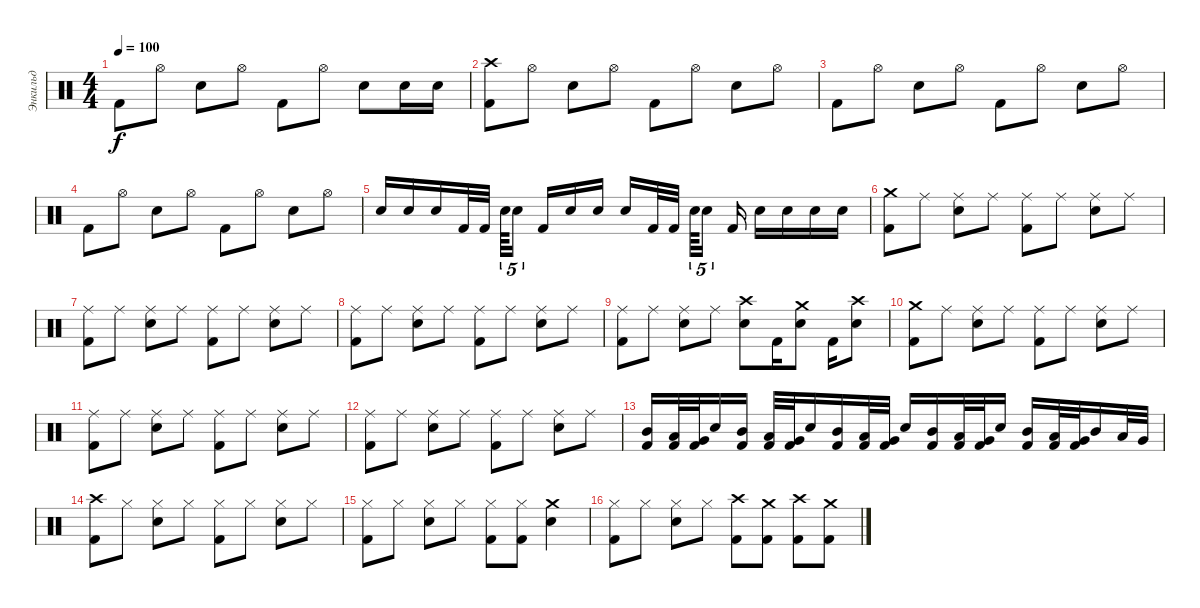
\track ("Энкильд" "Энкильд") {instrument percussion}
\staff {score}
\articulation defaults
\ts (4 4)
\tempo 100
\clef neutral
\ks c "Kick (hit) 2".8{dy f} "Hi-Hat (open)".8 "Snare (hit) 2".8 "Hi-Hat (open)".8 "Kick (hit) 2".8 "Hi-Hat (open)".8 "Snare (hit) 2".8 "Snare (hit) 2".16 "Snare (hit) 2".16
|
("Crash high (hit)" "Kick (hit) 2").8 "Hi-Hat (open)".8 "Snare (hit) 2".8 "Hi-Hat (open)".8 "Kick (hit) 2".8 "Hi-Hat (open)".8 "Snare (hit) 2".8 "Hi-Hat (open)".8 |
"Kick (hit) 2".8 "Hi-Hat (open)".8 "Snare (hit) 2".8 "Hi-Hat (open)".8 "Kick (hit) 2".8 "Hi-Hat (open)".8 "Snare (hit) 2".8 "Hi-Hat (open)".8 |
"Kick (hit) 2".8 "Hi-Hat (open)".8 "Snare (hit) 2".8 "Hi-Hat (open)".8 "Kick (hit) 2".8 "Hi-Hat (open)".8 "Snare (hit) 2".8 "Hi-Hat (open)".8 |
"Snare (hit) 2".16 "Snare (hit) 2".16 "Snare (hit) 2".16 "Kick (hit) 2".32 "Kick (hit) 2".32 "Snare (hit) 2".64{tu (5 4)} "Snare (hit) 2".16{tu (5 4) beam splitsecondary} "Kick (hit) 2".16 "Snare (hit) 2".16 "Snare (hit) 2".16 "Snare (hit) 2".16 "Kick (hit) 2".32 "Kick (hit) 2".32{beam splitsecondary} "Snare (hit) 2".64{tu (5 4)} "Snare (hit) 2".16{tu (5 4) beam splitsecondary} "Kick (hit) 2".16 "Snare (hit) 2".16 "Snare (hit) 2".16 "Snare (hit) 2".16 "Snare (hit) 2".16 |
("Crash medium (hit)" "Kick (hit) 2").8 "Ride (middle)".8 ("Ride (middle)" "Snare (hit) 2").8 "Ride (middle)".8 ("Ride (middle)" "Kick (hit) 2").8 "Ride (middle)".8 ("Ride (middle)" "Snare (hit) 2").8 "Ride (middle)".8 |
("Kick (hit) 2" "Ride (middle)").8 "Ride (middle)".8 ("Snare (hit) 2" "Ride (middle)").8 "Ride (middle)".8 ("Kick (hit) 2" "Ride (middle)").8 "Ride (middle)".8 ("Snare (hit) 2" "Ride (middle)").8 "Ride (middle)".8 |
("Ride (middle)" "Kick (hit) 2").8 "Ride (middle)".8 ("Ride (middle)" "Snare (hit) 2").8 "Ride (middle)".8 ("Ride (middle)" "Kick (hit) 2").8 "Ride (middle)".8 ("Ride (middle)" "Snare (hit) 2").8 "Ride (middle)".8 |
("Ride (middle)" "Kick (hit) 2").8 "Ride (middle)".8 ("Ride (middle)" "Snare (hit) 2").8 "Ride (middle)".8 ("Crash high (hit)" "Snare (hit) 2").8 "Kick (hit) 2".16 ("Crash medium (hit)" "Snare (hit) 2").8 "Kick (hit) 2".16 ("Crash high (hit)" "Snare (hit) 2").8 |
("Crash medium (hit)" "Kick (hit) 2").8 "Ride (middle)".8 ("Ride (middle)" "Snare (hit) 2").8 "Ride (middle)".8 ("Ride (middle)" "Kick (hit) 2").8 "Ride (middle)".8 ("Ride (middle)" "Snare (hit) 2").8 "Ride (middle)".8 |
("Kick (hit) 2" "Ride (middle)").8 "Ride (middle)".8 ("Snare (hit) 2" "Ride (middle)").8 "Ride (middle)".8 ("Kick (hit) 2" "Ride (middle)").8 "Ride (middle)".8 ("Snare (hit) 2" "Ride (middle)").8 "Ride (middle)".8 |
("Kick (hit) 2" "Ride (middle)").8 "Ride (middle)".8 ("Snare (hit) 2" "Ride (middle)").8 "Ride (middle)".8 ("Kick (hit) 2" "Ride (middle)").8 "Ride (middle)".8 ("Snare (hit) 2" "Ride (middle)").8 "Ride (middle)".8 |
("Mid Tom (hit)" "Kick (hit) 2").16 ("Low Tom (hit)" "Kick (hit) 2").32 ("Very Low Tom (hit)" "Kick (hit) 2").32 "Snare (hit) 2".16 ("Kick (hit) 2" "Mid Tom (hit)").16 ("Low Tom (hit)" "Kick (hit) 2").32 ("Very Low Tom (hit)" "Kick (hit) 2").32 "Snare (hit) 2".16 ("Mid Tom (hit)" "Kick (hit) 2").16 ("Low Tom (hit)" "Kick (hit) 2").32 ("Very Low Tom (hit)" "Kick (hit) 2").32 "Snare (hit) 2".16 ("Mid Tom (hit)" "Kick (hit) 2").16 ("Low Tom (hit)" "Kick (hit) 2").32 ("Very Low Tom (hit)" "Kick (hit) 2").32 "Snare (hit) 2".16 ("Mid Tom (hit)" "Kick (hit) 2").16 ("Low Tom (hit)" "Kick (hit) 2").32 ("Very Low Tom (hit)" "Kick (hit) 2").32 "Mid Tom (hit)".16 "Low Tom (hit)".32 "Very Low Tom (hit)".32 |
("Kick (hit) 2" "Crash high (hit)").8 "Hi-Hat (closed)".8 ("Snare (hit) 2" "Hi-Hat (closed)").8 "Hi-Hat (closed)".8 ("Kick (hit) 2" "Hi-Hat (closed)").8 "Hi-Hat (closed)".8 ("Snare (hit) 2" "Hi-Hat (closed)").8 "Hi-Hat (closed)".8 |
("Kick (hit) 2" "Hi-Hat (closed)").8 "Hi-Hat (closed)".8 ("Snare (hit) 2" "Hi-Hat (closed)").8 "Hi-Hat (closed)".8 ("Kick (hit) 2" "Hi-Hat (closed)").8 ("Kick (hit) 2" "Hi-Hat (closed)").8 ("Crash medium (hit)" "Snare (hit) 2").4 |
("Hi-Hat (closed)" "Kick (hit) 2").8 "Hi-Hat (closed)".8 ("Hi-Hat (closed)" "Snare (hit) 2").8 "Hi-Hat (closed)".8 ("Kick (hit) 2" "Crash high (hit)").8 ("Kick (hit) 2" "Crash medium (hit)").8 ("Kick (hit) 2" "Crash high (hit)").8 ("Kick (hit) 2" "Crash medium (hit)").8
